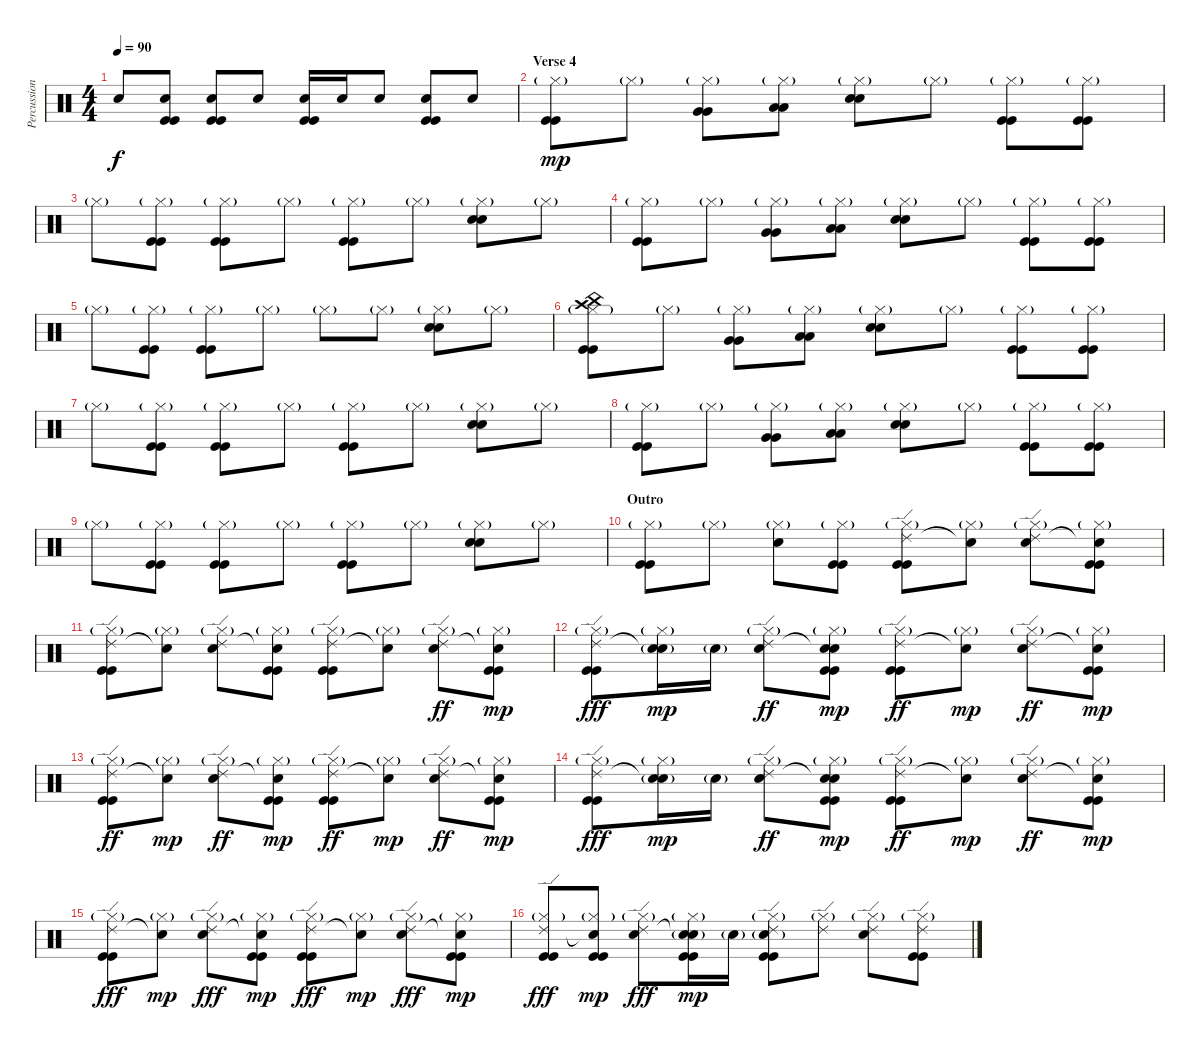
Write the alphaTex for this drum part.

\track ("Percussion" "Percussion") {instrument percussion}
\staff {score}
\articulation defaults
\ts (4 4)
\tempo 90
\clef neutral
\ks c "Electric Snare (hit)"{t}.8{dy f}
("Electric Snare (hit)" "Kick (hit)" "Kick (hit)").8 ("Electric Snare (hit)" "Kick (hit)" "Kick (hit)").8 "Electric Snare (hit)".8 ("Electric Snare (hit)" "Kick (hit)" "Kick (hit)").16 "Electric Snare (hit)".16 "Electric Snare (hit)".8 ("Electric Snare (hit)" "Kick (hit)" "Kick (hit)").8 "Electric Snare (hit)".8 |
\section ("" "Verse 4")
("Hi-Hat (closed)"{g} "Kick (hit)" "Kick (hit)").8{dy mp} "Hi-Hat (closed)"{g}.8 ("Hi-Hat (closed)"{g} "Very Low Tom (hit)" "Very Low Tom (hit)").8 ("Hi-Hat (closed)"{g} "Low Floor Tom (hit)" "Low Floor Tom (hit)").8 ("Hi-Hat (closed)"{g} "Snare (hit) 2" "Snare (hit) 2").8 "Hi-Hat (closed)"{g}.8 ("Hi-Hat (closed)"{g} "Kick (hit)" "Kick (hit)").8 ("Hi-Hat (closed)"{g} "Kick (hit)" "Kick (hit)").8 |
"Hi-Hat (closed)"{g}.8 ("Hi-Hat (closed)"{g} "Kick (hit)" "Kick (hit)").8 ("Hi-Hat (closed)"{g} "Kick (hit)" "Kick (hit)").8 "Hi-Hat (closed)"{g}.8 ("Hi-Hat (closed)"{g} "Kick (hit)" "Kick (hit)").8 "Hi-Hat (closed)"{g}.8 ("Hi-Hat (closed)"{g} "Snare (hit) 2" "Snare (hit) 2").8 "Hi-Hat (closed)"{g}.8 |
("Hi-Hat (closed)"{g} "Kick (hit)" "Kick (hit)").8 "Hi-Hat (closed)"{g}.8 ("Hi-Hat (closed)"{g} "Very Low Tom (hit)" "Very Low Tom (hit)").8 ("Hi-Hat (closed)"{g} "Low Floor Tom (hit)" "Low Floor Tom (hit)").8 ("Hi-Hat (closed)"{g} "Snare (hit) 2" "Snare (hit) 2").8 "Hi-Hat (closed)"{g}.8 ("Hi-Hat (closed)"{g} "Kick (hit)" "Kick (hit)").8 ("Hi-Hat (closed)"{g} "Kick (hit)" "Kick (hit)").8 |
"Hi-Hat (closed)"{g}.8 ("Hi-Hat (closed)"{g} "Kick (hit)" "Kick (hit)").8 ("Hi-Hat (closed)"{g} "Kick (hit)" "Kick (hit)").8 "Hi-Hat (closed)"{g}.8 "Hi-Hat (closed)"{g}.8 "Hi-Hat (closed)"{g}.8 ("Hi-Hat (closed)"{g} "Snare (hit) 2" "Snare (hit) 2").8 "Hi-Hat (closed)"{g}.8 |
("Hi-Hat (closed)"{g} "Crash high (hit)" "China (hit)" "Kick (hit)" "Kick (hit)").8 "Hi-Hat (closed)"{g}.8 ("Hi-Hat (closed)"{g} "Very Low Tom (hit)" "Very Low Tom (hit)").8 ("Hi-Hat (closed)"{g} "Low Floor Tom (hit)" "Low Floor Tom (hit)").8 ("Hi-Hat (closed)"{g} "Snare (hit) 2" "Snare (hit) 2").8 "Hi-Hat (closed)"{g}.8 ("Hi-Hat (closed)"{g} "Kick (hit)" "Kick (hit)").8 ("Hi-Hat (closed)"{g} "Kick (hit)" "Kick (hit)").8 |
"Hi-Hat (closed)"{g}.8 ("Hi-Hat (closed)"{g} "Kick (hit)" "Kick (hit)").8 ("Hi-Hat (closed)"{g} "Kick (hit)" "Kick (hit)").8 "Hi-Hat (closed)"{g}.8 ("Hi-Hat (closed)"{g} "Kick (hit)" "Kick (hit)").8 "Hi-Hat (closed)"{g}.8 ("Hi-Hat (closed)"{g} "Snare (hit) 2" "Snare (hit) 2").8 "Hi-Hat (closed)"{g}.8 |
("Hi-Hat (closed)"{g} "Kick (hit)" "Kick (hit)").8 "Hi-Hat (closed)"{g}.8 ("Hi-Hat (closed)"{g} "Very Low Tom (hit)" "Very Low Tom (hit)").8 ("Hi-Hat (closed)"{g} "Low Floor Tom (hit)" "Low Floor Tom (hit)").8 ("Hi-Hat (closed)"{g} "Snare (hit) 2" "Snare (hit) 2").8 "Hi-Hat (closed)"{g}.8 ("Hi-Hat (closed)"{g} "Kick (hit)" "Kick (hit)").8 ("Hi-Hat (closed)"{g} "Kick (hit)" "Kick (hit)").8 |
"Hi-Hat (closed)"{g}.8 ("Hi-Hat (closed)"{g} "Kick (hit)" "Kick (hit)").8 ("Hi-Hat (closed)"{g} "Kick (hit)" "Kick (hit)").8 "Hi-Hat (closed)"{g}.8 ("Hi-Hat (closed)"{g} "Kick (hit)" "Kick (hit)").8 "Hi-Hat (closed)"{g}.8 ("Hi-Hat (closed)"{g} "Snare (hit) 2" "Snare (hit) 2").8 "Hi-Hat (closed)"{g}.8 |
\section ("" "Outro")
("Hi-Hat (closed)"{g} "Kick (hit)" "Kick (hit)").8 "Hi-Hat (closed)"{g}.8 ("Hi-Hat (closed)"{g} "Snare (hit) 2").8 ("Hi-Hat (closed)"{g} "Kick (hit)" "Kick (hit)").8 ("Hi-Hat (closed)"{g} "Ride (edge) 2" "Kick (hit)" "Kick (hit)").8 ("Hi-Hat (closed)"{g} "Snare (hit)"{t}).8 ("Hi-Hat (closed)"{g} "Ride (edge) 2" "Snare (hit) 2").8 ("Hi-Hat (closed)"{g} "Snare (hit)"{t} "Kick (hit)" "Kick (hit)").8 |
("Hi-Hat (closed)"{g} "Ride (edge) 2" "Kick (hit)" "Kick (hit)").8 ("Hi-Hat (closed)"{g} "Snare (hit)"{t}).8 ("Hi-Hat (closed)"{g} "Ride (edge) 2" "Snare (hit) 2").8 ("Hi-Hat (closed)"{g} "Snare (hit)"{t} "Kick (hit)" "Kick (hit)").8 ("Hi-Hat (closed)"{g} "Ride (edge) 2" "Kick (hit)" "Kick (hit)").8 ("Hi-Hat (closed)"{g} "Snare (hit)"{t}).8 ("Hi-Hat (closed)"{g} "Ride (edge) 2" "Snare (hit) 2").8{dy ff} ("Hi-Hat (closed)"{g} "Snare (hit)"{t} "Kick (hit)" "Kick (hit)").8{dy mp} |
("Hi-Hat (closed)"{g} "Ride (edge) 2" "Kick (hit)" "Kick (hit)").8{dy fff} ("Hi-Hat (closed)"{g} "Snare (hit)"{t} "Snare (hit) 2"{g}).16{dy mp} "Snare (hit) 2"{g}.16 ("Hi-Hat (closed)"{g} "Ride (edge) 2" "Snare (hit) 2").8{dy ff} ("Hi-Hat (closed)"{g} "Snare (hit)"{t} "Snare (hit) 2" "Kick (hit)" "Kick (hit)").8{dy mp} ("Hi-Hat (closed)"{g} "Ride (edge) 2" "Kick (hit)" "Kick (hit)").8{dy ff} ("Hi-Hat (closed)"{g} "Snare (hit)"{t}).8{dy mp} ("Hi-Hat (closed)"{g} "Ride (edge) 2" "Snare (hit) 2").8{dy ff} ("Hi-Hat (closed)"{g} "Snare (hit)"{t} "Kick (hit)" "Kick (hit)").8{dy mp} |
("Hi-Hat (closed)"{g} "Ride (edge) 2" "Kick (hit)" "Kick (hit)").8{dy ff} ("Hi-Hat (closed)"{g} "Snare (hit)"{t}).8{dy mp} ("Hi-Hat (closed)"{g} "Ride (edge) 2" "Snare (hit) 2").8{dy ff} ("Hi-Hat (closed)"{g} "Snare (hit)"{t} "Kick (hit)" "Kick (hit)").8{dy mp} ("Hi-Hat (closed)"{g} "Ride (edge) 2" "Kick (hit)" "Kick (hit)").8{dy ff} ("Hi-Hat (closed)"{g} "Snare (hit)"{t}).8{dy mp} ("Hi-Hat (closed)"{g} "Ride (edge) 2" "Snare (hit) 2").8{dy ff} ("Hi-Hat (closed)"{g} "Snare (hit)"{t} "Kick (hit)" "Kick (hit)").8{dy mp} |
("Hi-Hat (closed)"{g} "Ride (edge) 2" "Kick (hit)" "Kick (hit)").8{dy fff} ("Hi-Hat (closed)"{g} "Snare (hit)"{t} "Snare (hit) 2"{g}).16{dy mp} "Snare (hit) 2"{g}.16 ("Hi-Hat (closed)"{g} "Ride (edge) 2" "Snare (hit) 2").8{dy ff} ("Hi-Hat (closed)"{g} "Snare (hit)"{t} "Snare (hit) 2" "Kick (hit)" "Kick (hit)").8{dy mp} ("Hi-Hat (closed)"{g} "Ride (edge) 2" "Kick (hit)" "Kick (hit)").8{dy ff} ("Hi-Hat (closed)"{g} "Snare (hit)"{t}).8{dy mp} ("Hi-Hat (closed)"{g} "Ride (edge) 2" "Snare (hit) 2").8{dy ff} ("Hi-Hat (closed)"{g} "Snare (hit)"{t} "Kick (hit)" "Kick (hit)").8{dy mp} |
("Hi-Hat (closed)"{g} "Ride (edge) 2" "Kick (hit)" "Kick (hit)").8{dy fff} ("Hi-Hat (closed)"{g} "Snare (hit)"{t}).8{dy mp} ("Hi-Hat (closed)"{g} "Ride (edge) 2" "Snare (hit) 2").8{dy fff} ("Hi-Hat (closed)"{g} "Snare (hit)"{t} "Kick (hit)" "Kick (hit)").8{dy mp} ("Hi-Hat (closed)"{g} "Ride (edge) 2" "Kick (hit)" "Kick (hit)").8{dy fff} ("Hi-Hat (closed)"{g} "Snare (hit)"{t}).8{dy mp} ("Hi-Hat (closed)"{g} "Ride (edge) 2" "Snare (hit) 2").8{dy fff} ("Hi-Hat (closed)"{g} "Snare (hit)"{t} "Kick (hit)" "Kick (hit)").8{dy mp} |
("Hi-Hat (closed)"{g} "Ride (edge) 2" "Kick (hit)" "Kick (hit)").8{dy fff} ("Hi-Hat (closed)"{g} "Snare (hit)"{t} "Kick (hit)" "Kick (hit)").8{dy mp} ("Hi-Hat (closed)"{g} "Ride (edge) 2" "Snare (hit) 2").8{dy fff} ("Hi-Hat (closed)"{g} "Snare (hit)"{t} "Snare (hit) 2"{g} "Kick (hit)" "Kick (hit)").16{dy mp} "Snare (hit) 2"{g}.16 ("Hi-Hat (closed)"{g} "Ride (edge) 2" "Snare (hit) 2"{g} "Kick (hit)" "Kick (hit)").8 ("Hi-Hat (closed)"{g} "Ride (edge) 2").8 ("Hi-Hat (closed)"{g} "Ride (edge) 2" "Snare (hit) 2").8 ("Hi-Hat (closed)"{g} "Ride (edge) 2" "Kick (hit)" "Kick (hit)").8
